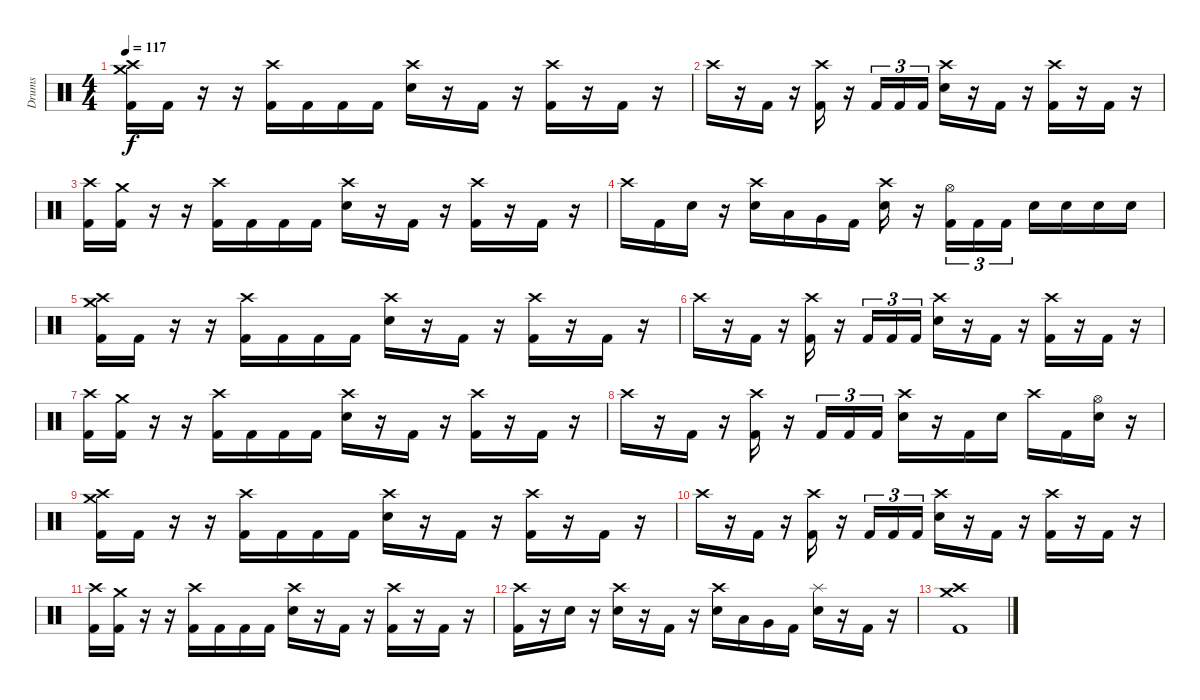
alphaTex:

\track ("Drums" "Drums") {instrument percussion}
\staff {score}
\articulation defaults
\ts (4 4)
\tempo 117
\clef neutral
\ks c
("Crash high (hit)" "Crash medium (hit)" "Kick (hit) 2").16{dy f} "Kick (hit) 2".16 r.16 r.16 ("Crash high (hit)" "Kick (hit) 2").16 "Kick (hit) 2".16 "Kick (hit) 2".16 "Kick (hit) 2".16 ("Crash high (hit)" "Snare (hit) 2").16 r.16 "Kick (hit) 2".16 r.16 ("Crash high (hit)" "Kick (hit) 2").16 r.16 "Kick (hit) 2".16 r.16 |
"Crash high (hit)".16 r.16 "Kick (hit) 2".16 r.16 ("Crash high (hit)" "Kick (hit) 2").16 r.16 "Kick (hit) 2".16{tu (3 2)} "Kick (hit) 2".16{tu (3 2)} "Kick (hit) 2".16{tu (3 2)} ("Crash high (hit)" "Snare (hit) 2").16 r.16 "Kick (hit) 2".16 r.16 ("Crash high (hit)" "Kick (hit) 2").16 r.16 "Kick (hit) 2".16 r.16 |
("Crash high (hit)" "Kick (hit) 2").16 ("Crash medium (hit)" "Kick (hit) 2").16 r.16 r.16 ("Crash high (hit)" "Kick (hit) 2").16 "Kick (hit) 2".16 "Kick (hit) 2".16 "Kick (hit) 2".16 ("Crash high (hit)" "Snare (hit) 2").16 r.16 "Kick (hit) 2".16 r.16 ("Crash high (hit)" "Kick (hit) 2").16 r.16 "Kick (hit) 2".16 r.16 |
"Crash high (hit)".16 "Kick (hit) 2".16 "Snare (hit) 2".16 r.16 ("Crash high (hit)" "Snare (hit) 2").16 "Low Tom (hit)".16 "Very Low Tom (hit)".16 "Kick (hit) 2".16 ("Crash high (hit)" "Snare (hit) 2").16 r.16 ("Hi-Hat (open)" "Kick (hit) 2").16{tu (3 2)} "Kick (hit) 2".16{tu (3 2)} "Kick (hit) 2".16{tu (3 2)} "Snare (hit) 2".16 "Snare (hit) 2".16 "Snare (hit) 2".16 "Snare (hit) 2".16 |
("Crash high (hit)" "Crash medium (hit)" "Kick (hit) 2").16 "Kick (hit) 2".16 r.16 r.16 ("Crash high (hit)" "Kick (hit) 2").16 "Kick (hit) 2".16 "Kick (hit) 2".16 "Kick (hit) 2".16 ("Crash high (hit)" "Snare (hit) 2").16 r.16 "Kick (hit) 2".16 r.16 ("Crash high (hit)" "Kick (hit) 2").16 r.16 "Kick (hit) 2".16 r.16 |
"Crash high (hit)".16 r.16 "Kick (hit) 2".16 r.16 ("Crash high (hit)" "Kick (hit) 2").16 r.16 "Kick (hit) 2".16{tu (3 2)} "Kick (hit) 2".16{tu (3 2)} "Kick (hit) 2".16{tu (3 2)} ("Crash high (hit)" "Snare (hit) 2").16 r.16 "Kick (hit) 2".16 r.16 ("Crash high (hit)" "Kick (hit) 2").16 r.16 "Kick (hit) 2".16 r.16 |
("Crash high (hit)" "Kick (hit) 2").16 ("Crash medium (hit)" "Kick (hit) 2").16 r.16 r.16 ("Crash high (hit)" "Kick (hit) 2").16 "Kick (hit) 2".16 "Kick (hit) 2".16 "Kick (hit) 2".16 ("Crash high (hit)" "Snare (hit) 2").16 r.16 "Kick (hit) 2".16 r.16 ("Crash high (hit)" "Kick (hit) 2").16 r.16 "Kick (hit) 2".16 r.16 |
"Crash high (hit)".16 r.16 "Kick (hit) 2".16 r.16 ("Crash high (hit)" "Kick (hit) 2").16 r.16 "Kick (hit) 2".16{tu (3 2)} "Kick (hit) 2".16{tu (3 2)} "Kick (hit) 2".16{tu (3 2)} ("Crash high (hit)" "Snare (hit) 2").16 r.16 "Kick (hit) 2".16 "Snare (hit) 2".16 "Crash high (hit)".16 "Kick (hit) 2".16 ("Hi-Hat (open)" "Snare (hit) 2").16 r.16 |
("Crash high (hit)" "Crash medium (hit)" "Kick (hit) 2").16 "Kick (hit) 2".16 r.16 r.16 ("Crash high (hit)" "Kick (hit) 2").16 "Kick (hit) 2".16 "Kick (hit) 2".16 "Kick (hit) 2".16 ("Crash high (hit)" "Snare (hit) 2").16 r.16 "Kick (hit) 2".16 r.16 ("Crash high (hit)" "Kick (hit) 2").16 r.16 "Kick (hit) 2".16 r.16 |
"Crash high (hit)".16 r.16 "Kick (hit) 2".16 r.16 ("Crash high (hit)" "Kick (hit) 2").16 r.16 "Kick (hit) 2".16{tu (3 2)} "Kick (hit) 2".16{tu (3 2)} "Kick (hit) 2".16{tu (3 2)} ("Crash high (hit)" "Snare (hit) 2").16 r.16 "Kick (hit) 2".16 r.16 ("Crash high (hit)" "Kick (hit) 2").16 r.16 "Kick (hit) 2".16 r.16 |
("Crash high (hit)" "Kick (hit) 2").16 ("Crash medium (hit)" "Kick (hit) 2").16 r.16 r.16 ("Crash high (hit)" "Kick (hit) 2").16 "Kick (hit) 2".16 "Kick (hit) 2".16 "Kick (hit) 2".16 ("Crash high (hit)" "Snare (hit) 2").16 r.16 "Kick (hit) 2".16 r.16 ("Crash high (hit)" "Kick (hit) 2").16 r.16 "Kick (hit) 2".16 r.16 |
("Crash high (hit)" "Kick (hit) 2").16 r.16 "Snare (hit) 2".16 r.16 ("Crash high (hit)" "Snare (hit) 2").16 r.16 "Kick (hit) 2".16 r.16 ("Crash high (hit)" "Snare (hit) 2").16 "Low Tom (hit)".16 "Very Low Tom (hit)".16 "Kick (hit) 2".16 ("Splash (hit)" "Snare (hit) 2").16 r.16 "Kick (hit) 2".16 r.16 |
("Crash medium (hit)" "Crash high (hit)" "Kick (hit) 2").1
